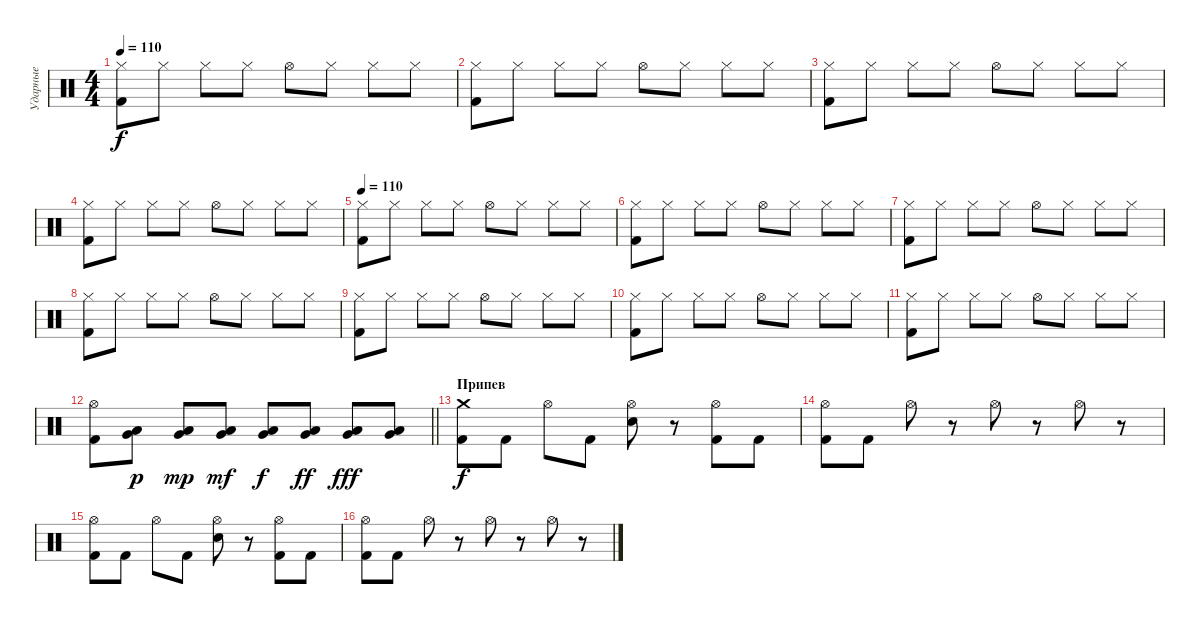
\track ("Ударные" "Ударные") {instrument percussion}
\staff {score}
\articulation defaults
\ts (4 4)
\tempo 110
\clef neutral
\ks c
("Hi-Hat (closed)" "Kick (hit) 2").8{dy f} "Hi-Hat (closed)".8 "Hi-Hat (closed)".8 "Hi-Hat (closed)".8 "Hi-Hat (open)".8 "Hi-Hat (closed)".8 "Hi-Hat (closed)".8 "Hi-Hat (closed)".8 |
("Hi-Hat (closed)" "Kick (hit) 2").8 "Hi-Hat (closed)".8 "Hi-Hat (closed)".8 "Hi-Hat (closed)".8 "Hi-Hat (open)".8 "Hi-Hat (closed)".8 "Hi-Hat (closed)".8 "Hi-Hat (closed)".8 |
("Hi-Hat (closed)" "Kick (hit) 2").8 "Hi-Hat (closed)".8 "Hi-Hat (closed)".8 "Hi-Hat (closed)".8 "Hi-Hat (open)".8 "Hi-Hat (closed)".8 "Hi-Hat (closed)".8 "Hi-Hat (closed)".8 |
("Hi-Hat (closed)" "Kick (hit) 2").8 "Hi-Hat (closed)".8 "Hi-Hat (closed)".8 "Hi-Hat (closed)".8 "Hi-Hat (open)".8 "Hi-Hat (closed)".8 "Hi-Hat (closed)".8 "Hi-Hat (closed)".8 |
\tempo 110
("Hi-Hat (closed)" "Kick (hit) 2").8 "Hi-Hat (closed)".8 "Hi-Hat (closed)".8 "Hi-Hat (closed)".8 "Hi-Hat (open)".8 "Hi-Hat (closed)".8 "Hi-Hat (closed)".8 "Hi-Hat (closed)".8 |
("Hi-Hat (closed)" "Kick (hit) 2").8 "Hi-Hat (closed)".8 "Hi-Hat (closed)".8 "Hi-Hat (closed)".8 "Hi-Hat (open)".8 "Hi-Hat (closed)".8 "Hi-Hat (closed)".8 "Hi-Hat (closed)".8 |
("Hi-Hat (closed)" "Kick (hit) 2").8 "Hi-Hat (closed)".8 "Hi-Hat (closed)".8 "Hi-Hat (closed)".8 "Hi-Hat (open)".8 "Hi-Hat (closed)".8 "Hi-Hat (closed)".8 "Hi-Hat (closed)".8 |
("Hi-Hat (closed)" "Kick (hit) 2").8 "Hi-Hat (closed)".8 "Hi-Hat (closed)".8 "Hi-Hat (closed)".8 "Hi-Hat (open)".8 "Hi-Hat (closed)".8 "Hi-Hat (closed)".8 "Hi-Hat (closed)".8 |
("Hi-Hat (closed)" "Kick (hit) 2").8 "Hi-Hat (closed)".8 "Hi-Hat (closed)".8 "Hi-Hat (closed)".8 "Hi-Hat (open)".8 "Hi-Hat (closed)".8 "Hi-Hat (closed)".8 "Hi-Hat (closed)".8 |
("Hi-Hat (closed)" "Kick (hit) 2").8 "Hi-Hat (closed)".8 "Hi-Hat (closed)".8 "Hi-Hat (closed)".8 "Hi-Hat (open)".8 "Hi-Hat (closed)".8 "Hi-Hat (closed)".8 "Hi-Hat (closed)".8 |
("Hi-Hat (closed)" "Kick (hit) 2").8 "Hi-Hat (closed)".8 "Hi-Hat (closed)".8 "Hi-Hat (closed)".8 "Hi-Hat (open)".8 "Hi-Hat (closed)".8 "Hi-Hat (closed)".8 "Hi-Hat (closed)".8 |
\barLineRight lightlight
("Hi-Hat (open)" "Kick (hit) 2").8 ("Very Low Tom (hit)" "Low Floor Tom (hit)").8{dy p} ("Very Low Tom (hit)" "Low Floor Tom (hit)").8{dy mp} ("Very Low Tom (hit)" "Low Floor Tom (hit)").8{dy mf} ("Very Low Tom (hit)" "Low Floor Tom (hit)").8{dy f} ("Very Low Tom (hit)" "Low Floor Tom (hit)").8{dy ff} ("Very Low Tom (hit)" "Low Floor Tom (hit)").8{dy fff} ("Very Low Tom (hit)" "Low Floor Tom (hit)").8 |
\section ("" "Припев")
("Crash medium (hit)" "Kick (hit) 2").8{dy f} "Kick (hit) 2".8 "Hi-Hat (open)".8 "Kick (hit) 2".8 ("Hi-Hat (open)" "Electric Snare (hit)").8 r.8 ("Hi-Hat (open)" "Kick (hit) 2").8 "Kick (hit) 2".8 |
("Hi-Hat (open)" "Kick (hit) 2").8 "Kick (hit) 2".8 "Hi-Hat (open)".8 r.8 "Hi-Hat (open)".8 r.8 "Hi-Hat (open)".8 r.8 |
("Hi-Hat (open)" "Kick (hit) 2").8 "Kick (hit) 2".8 "Hi-Hat (open)".8 "Kick (hit) 2".8 ("Hi-Hat (open)" "Electric Snare (hit)").8 r.8 ("Hi-Hat (open)" "Kick (hit) 2").8 "Kick (hit) 2".8 |
("Hi-Hat (open)" "Kick (hit) 2").8 "Kick (hit) 2".8 "Hi-Hat (open)".8 r.8 "Hi-Hat (open)".8 r.8 "Hi-Hat (open)".8 r.8
